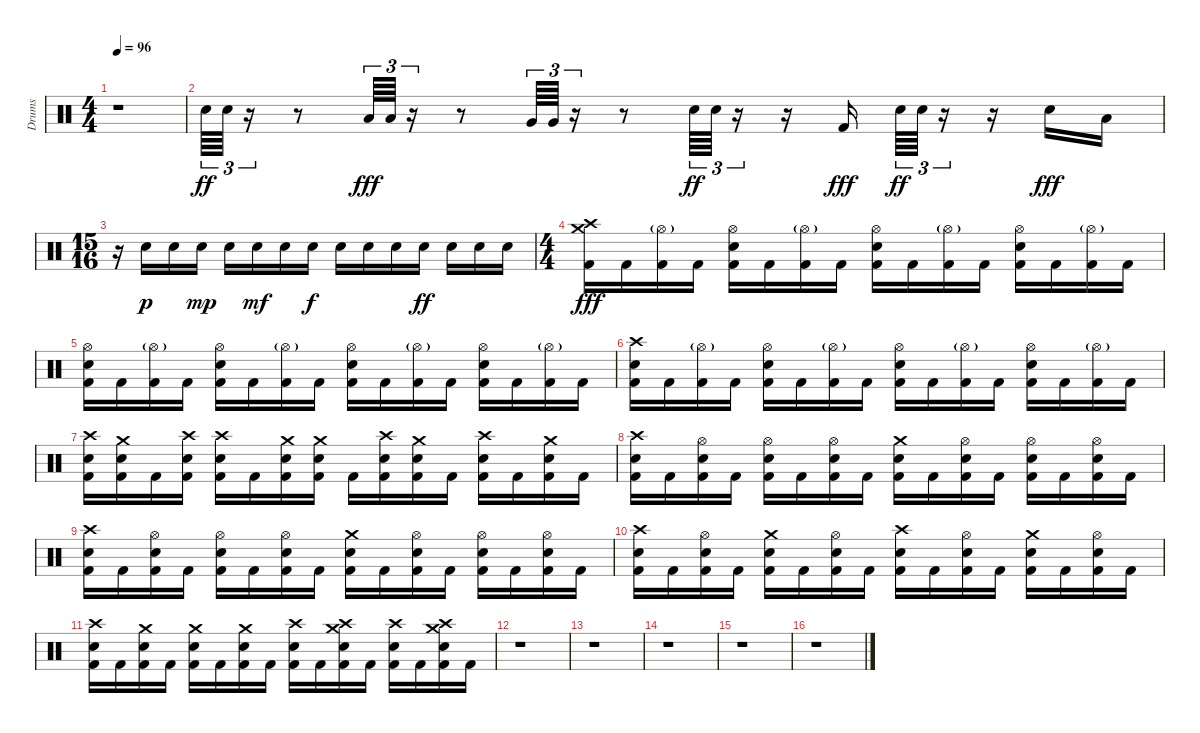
\track ("Drums" "Drums") {instrument percussion}
\staff {score}
\articulation defaults
\ts (4 4)
\tempo 96
\clef neutral
\ks c
r.1{dy fff} |
"Electric Snare (hit)".64{tu (3 2) dy ff} "Electric Snare (hit)".64{tu (3 2)} r.16{tu (3 2)} r.8 "Low Tom (hit)".64{tu (3 2) dy fff} "Low Tom (hit)".64{tu (3 2)} r.16{tu (3 2)} r.8 "Very Low Tom (hit)".64{tu (3 2)} "Very Low Tom (hit)".64{tu (3 2)} r.16{tu (3 2)} r.8 "Electric Snare (hit)".64{tu (3 2) dy ff} "Electric Snare (hit)".64{tu (3 2)} r.16{tu (3 2)} r.16 "Kick (hit) 2".16{dy fff} "Electric Snare (hit)".64{tu (3 2) dy ff} "Electric Snare (hit)".64{tu (3 2)} r.16{tu (3 2)} r.16 "Electric Snare (hit)".16{dy fff} "Low Tom (hit)".16 |
\ts (15 16)
r.16 "Electric Snare (hit)".16{dy p} "Electric Snare (hit)".16 "Electric Snare (hit)".16{dy mp} "Electric Snare (hit)".16 "Electric Snare (hit)".16{dy mf} "Electric Snare (hit)".16 "Electric Snare (hit)".16{dy f} "Electric Snare (hit)".16 "Electric Snare (hit)".16 "Electric Snare (hit)".16 "Electric Snare (hit)".16{dy ff} "Electric Snare (hit)".16 "Electric Snare (hit)".16 "Electric Snare (hit)".16 |
\ts (4 4)
("Crash high (hit)" "Crash medium (hit)" "Kick (hit) 2").16{dy fff} "Kick (hit) 2".16 ("Hi-Hat (open)"{g} "Kick (hit) 2").16 "Kick (hit) 2".16 ("Hi-Hat (open)" "Electric Snare (hit)" "Kick (hit) 2").16 "Kick (hit) 2".16 ("Hi-Hat (open)"{g} "Kick (hit) 2").16 "Kick (hit) 2".16 ("Hi-Hat (open)" "Electric Snare (hit)" "Kick (hit) 2").16 "Kick (hit) 2".16 ("Hi-Hat (open)"{g} "Kick (hit) 2").16 "Kick (hit) 2".16 ("Hi-Hat (open)" "Electric Snare (hit)" "Kick (hit) 2").16 "Kick (hit) 2".16 ("Hi-Hat (open)"{g} "Kick (hit) 2").16 "Kick (hit) 2".16 |
("Hi-Hat (open)" "Electric Snare (hit)" "Kick (hit) 2").16 "Kick (hit) 2".16 ("Hi-Hat (open)"{g} "Kick (hit) 2").16 "Kick (hit) 2".16 ("Hi-Hat (open)" "Electric Snare (hit)" "Kick (hit) 2").16 "Kick (hit) 2".16 ("Hi-Hat (open)"{g} "Kick (hit) 2").16 "Kick (hit) 2".16 ("Hi-Hat (open)" "Electric Snare (hit)" "Kick (hit) 2").16 "Kick (hit) 2".16 ("Hi-Hat (open)"{g} "Kick (hit) 2").16 "Kick (hit) 2".16 ("Hi-Hat (open)" "Electric Snare (hit)" "Kick (hit) 2").16 "Kick (hit) 2".16 ("Hi-Hat (open)"{g} "Kick (hit) 2").16 "Kick (hit) 2".16 |
("Crash high (hit)" "Electric Snare (hit)" "Kick (hit) 2").16 "Kick (hit) 2".16 ("Hi-Hat (open)"{g} "Kick (hit) 2").16 "Kick (hit) 2".16 ("Hi-Hat (open)" "Electric Snare (hit)" "Kick (hit) 2").16 "Kick (hit) 2".16 ("Hi-Hat (open)"{g} "Kick (hit) 2").16 "Kick (hit) 2".16 ("Hi-Hat (open)" "Electric Snare (hit)" "Kick (hit) 2").16 "Kick (hit) 2".16 ("Hi-Hat (open)"{g} "Kick (hit) 2").16 "Kick (hit) 2".16 ("Hi-Hat (open)" "Electric Snare (hit)" "Kick (hit) 2").16 "Kick (hit) 2".16 ("Hi-Hat (open)"{g} "Kick (hit) 2").16 "Kick (hit) 2".16 |
("Crash high (hit)" "Electric Snare (hit)" "Kick (hit) 2").16 ("Crash medium (hit)" "Electric Snare (hit)" "Kick (hit) 2").16 "Kick (hit) 2".16 ("Crash high (hit)" "Electric Snare (hit)" "Kick (hit) 2").16 ("Crash high (hit)" "Electric Snare (hit)" "Kick (hit) 2").16 "Kick (hit) 2".16 ("Crash medium (hit)" "Electric Snare (hit)" "Kick (hit) 2").16 ("Crash medium (hit)" "Electric Snare (hit)" "Kick (hit) 2").16 "Kick (hit) 2".16 ("Crash high (hit)" "Electric Snare (hit)" "Kick (hit) 2").16 ("Crash medium (hit)" "Electric Snare (hit)" "Kick (hit) 2").16 "Kick (hit) 2".16 ("Crash high (hit)" "Electric Snare (hit)" "Kick (hit) 2").16 "Kick (hit) 2".16 ("Crash medium (hit)" "Electric Snare (hit)" "Kick (hit) 2").16 "Kick (hit) 2".16 |
("Crash high (hit)" "Electric Snare (hit)" "Kick (hit) 2").16 "Kick (hit) 2".16 ("Hi-Hat (open)" "Electric Snare (hit)" "Kick (hit) 2").16 "Kick (hit) 2".16 ("Hi-Hat (open)" "Electric Snare (hit)" "Kick (hit) 2").16 "Kick (hit) 2".16 ("Hi-Hat (open)" "Electric Snare (hit)" "Kick (hit) 2").16 "Kick (hit) 2".16 ("Crash medium (hit)" "Electric Snare (hit)" "Kick (hit) 2").16 "Kick (hit) 2".16 ("Hi-Hat (open)" "Electric Snare (hit)" "Kick (hit) 2").16 "Kick (hit) 2".16 ("Hi-Hat (open)" "Electric Snare (hit)" "Kick (hit) 2").16 "Kick (hit) 2".16 ("Hi-Hat (open)" "Electric Snare (hit)" "Kick (hit) 2").16 "Kick (hit) 2".16 |
("Crash high (hit)" "Electric Snare (hit)" "Kick (hit) 2").16 "Kick (hit) 2".16 ("Hi-Hat (open)" "Electric Snare (hit)" "Kick (hit) 2").16 "Kick (hit) 2".16 ("Hi-Hat (open)" "Electric Snare (hit)" "Kick (hit) 2").16 "Kick (hit) 2".16 ("Hi-Hat (open)" "Electric Snare (hit)" "Kick (hit) 2").16 "Kick (hit) 2".16 ("Crash medium (hit)" "Electric Snare (hit)" "Kick (hit) 2").16 "Kick (hit) 2".16 ("Hi-Hat (open)" "Electric Snare (hit)" "Kick (hit) 2").16 "Kick (hit) 2".16 ("Hi-Hat (open)" "Electric Snare (hit)" "Kick (hit) 2").16 "Kick (hit) 2".16 ("Hi-Hat (open)" "Electric Snare (hit)" "Kick (hit) 2").16 "Kick (hit) 2".16 |
("Crash high (hit)" "Electric Snare (hit)" "Kick (hit) 2").16 "Kick (hit) 2".16 ("Hi-Hat (open)" "Electric Snare (hit)" "Kick (hit) 2").16 "Kick (hit) 2".16 ("Crash medium (hit)" "Electric Snare (hit)" "Kick (hit) 2").16 "Kick (hit) 2".16 ("Hi-Hat (open)" "Electric Snare (hit)" "Kick (hit) 2").16 "Kick (hit) 2".16 ("Crash high (hit)" "Electric Snare (hit)" "Kick (hit) 2").16 "Kick (hit) 2".16 ("Hi-Hat (open)" "Electric Snare (hit)" "Kick (hit) 2").16 "Kick (hit) 2".16 ("Crash medium (hit)" "Electric Snare (hit)" "Kick (hit) 2").16 "Kick (hit) 2".16 ("Hi-Hat (open)" "Electric Snare (hit)" "Kick (hit) 2").16 "Kick (hit) 2".16 |
("Crash high (hit)" "Electric Snare (hit)" "Kick (hit) 2").16 "Kick (hit) 2".16 ("Crash medium (hit)" "Electric Snare (hit)" "Kick (hit) 2").16 "Kick (hit) 2".16 ("Crash medium (hit)" "Electric Snare (hit)" "Kick (hit) 2").16 "Kick (hit) 2".16 ("Crash medium (hit)" "Electric Snare (hit)" "Kick (hit) 2").16 "Kick (hit) 2".16 ("Crash high (hit)" "Electric Snare (hit)" "Kick (hit) 2").16 "Kick (hit) 2".16 ("Crash medium (hit)" "Crash high (hit)" "Electric Snare (hit)" "Kick (hit) 2").16 "Kick (hit) 2".16 ("Crash high (hit)" "Electric Snare (hit)" "Kick (hit) 2").16 "Kick (hit) 2".16 ("Crash medium (hit)" "Crash high (hit)" "Electric Snare (hit)" "Kick (hit) 2").16 "Kick (hit) 2".16 |
r.1 |
r.1 |
r.1 |
r.1 |
r.1
